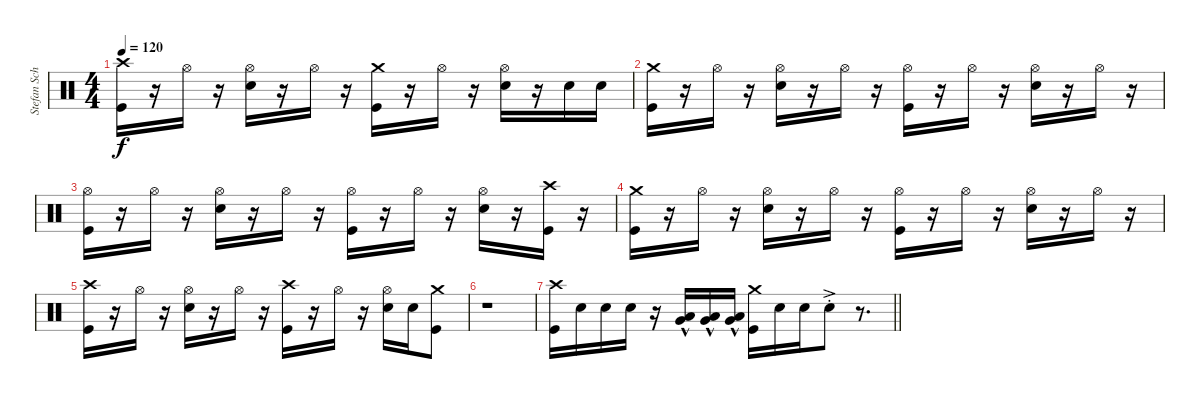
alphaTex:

\track ("Stefan Schwarzmann" "Stefan Sch") {instrument percussion}
\staff {score}
\articulation defaults
\ts (4 4)
\tempo 120
\clef neutral
\ks c
("Kick (hit)" "Crash high (hit)").16{dy f} r.16 "Hi-Hat (open)".16 r.16 ("Snare (hit) 2" "Hi-Hat (open)").16 r.16 "Hi-Hat (open)".16 r.16 ("Kick (hit)" "Crash medium (hit)").16 r.16 "Hi-Hat (open)".16 r.16 ("Snare (hit) 2" "Hi-Hat (open)").16 r.16 "Snare (hit) 2".16 "Snare (hit) 2".16 |
("Kick (hit)" "Crash medium (hit)").16 r.16 "Hi-Hat (open)".16 r.16 ("Snare (hit) 2" "Hi-Hat (open)").16 r.16 "Hi-Hat (open)".16 r.16 ("Kick (hit)" "Hi-Hat (open)").16 r.16 "Hi-Hat (open)".16 r.16 ("Snare (hit) 2" "Hi-Hat (open)").16 r.16 "Hi-Hat (open)".16 r.16 |
("Kick (hit)" "Hi-Hat (open)").16 r.16 "Hi-Hat (open)".16 r.16 ("Snare (hit) 2" "Hi-Hat (open)").16 r.16 "Hi-Hat (open)".16 r.16 ("Kick (hit)" "Hi-Hat (open)").16 r.16 "Hi-Hat (open)".16 r.16 ("Snare (hit) 2" "Hi-Hat (open)").16 r.16 ("Crash high (hit)" "Kick (hit)").16 r.16 |
("Kick (hit)" "Crash medium (hit)").16 r.16 "Hi-Hat (open)".16 r.16 ("Snare (hit) 2" "Hi-Hat (open)").16 r.16 "Hi-Hat (open)".16 r.16 ("Kick (hit)" "Hi-Hat (open)").16 r.16 "Hi-Hat (open)".16 r.16 ("Snare (hit) 2" "Hi-Hat (open)").16 r.16 "Hi-Hat (open)".16 r.16 |
("Kick (hit)" "Crash high (hit)").16 r.16 "Hi-Hat (open)".16 r.16 ("Snare (hit) 2" "Hi-Hat (open)").16 r.16 "Hi-Hat (open)".16 r.16 ("Kick (hit)" "Crash high (hit)").16 r.16 "Hi-Hat (open)".16 r.16 ("Snare (hit) 2" "Hi-Hat (open)").16 "Snare (hit) 2".16 ("Kick (hit)" "Crash medium (hit)").8 |
r.1 |
\barLineRight lightlight
("Kick (hit)" "Crash high (hit)").16 "Snare (hit) 2".16 "Snare (hit) 2".16 "Snare (hit) 2".16 r.16 ("Low Floor Tom (hit)"{hac} "Very Low Tom (hit)"{hac}).16 ("Low Floor Tom (hit)"{hac} "Very Low Tom (hit)"{hac}).16 ("Low Floor Tom (hit)"{hac} "Very Low Tom (hit)"{hac}).16 ("Kick (hit)" "Crash medium (hit)").16 "Snare (hit) 2".16 "Snare (hit) 2".16 "Snare (hit) 2"{ac st}.8 r.8{d}
